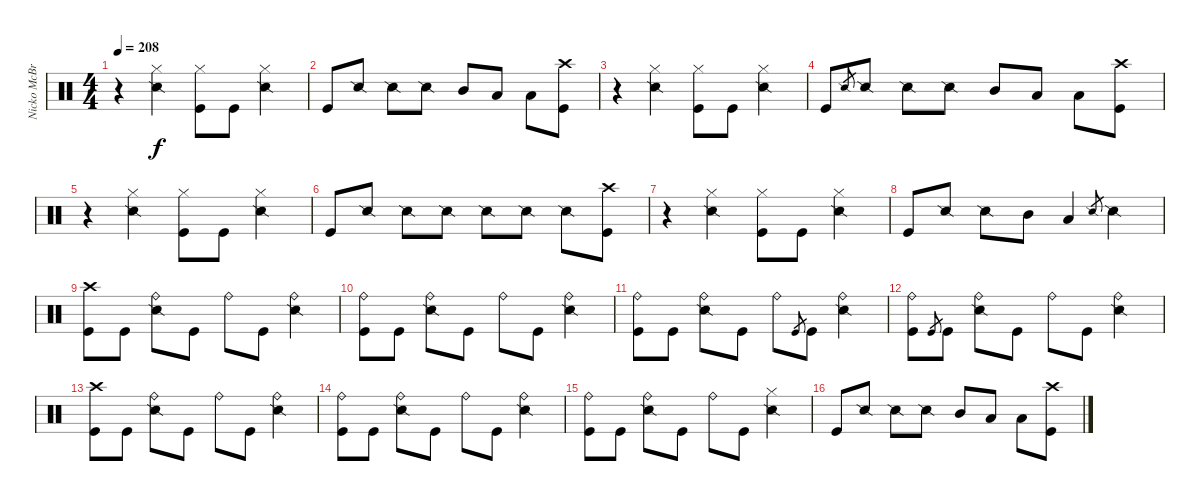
\track ("Nicko McBrain" "Nicko McBr") {instrument percussion}
\staff {score}
\articulation defaults
\ts (4 4)
\tempo 208
\clef neutral
\ks c
r.4{dy f} ("Hi-Hat (closed)" "Snare (side stick) 2").4 ("Hi-Hat (closed)" "Kick (hit)").8 "Kick (hit)".8 ("Hi-Hat (closed)" "Snare (side stick) 2").4 |
"Kick (hit)".8 "Snare (side stick) 2".8 "Snare (side stick) 2".8 "Snare (side stick) 2".8 "Mid Tom (hit)".8 "Low Tom (hit)".8 "Low Tom (hit)".8 ("Crash high (hit)" "Kick (hit)").8 |
r.4 ("Hi-Hat (closed)" "Snare (side stick) 2").4 ("Hi-Hat (closed)" "Kick (hit)").8 "Kick (hit)".8 ("Hi-Hat (closed)" "Snare (side stick) 2").4 |
"Kick (hit)".8 "Snare (side stick) 2".8{gr} "Snare (side stick) 2".8 "Snare (side stick) 2".8 "Snare (side stick) 2".8 "Mid Tom (hit)".8 "Low Tom (hit)".8 "Low Tom (hit)".8 ("Crash high (hit)" "Kick (hit)").8 |
r.4 ("Hi-Hat (closed)" "Snare (side stick) 2").4 ("Hi-Hat (closed)" "Kick (hit)").8 "Kick (hit)".8 ("Hi-Hat (closed)" "Snare (side stick) 2").4 |
"Kick (hit)".8 "Snare (side stick) 2".8 "Snare (side stick) 2".8 "Snare (side stick) 2".8 "Snare (side stick) 2".8 "Snare (side stick) 2".8 "Snare (side stick) 2".8 ("Crash high (hit)" "Kick (hit)").8 |
r.4 ("Hi-Hat (closed)" "Snare (side stick) 2").4 ("Hi-Hat (closed)" "Kick (hit)").8 "Kick (hit)".8 ("Hi-Hat (closed)" "Snare (side stick) 2").4 |
"Kick (hit)".8 "Snare (side stick) 2".8 "Snare (side stick) 2".8 "Mid Tom (hit)".8 "Low Tom (hit)".4 "Snare (side stick) 2".8{gr} "Snare (side stick) 2".4 |
("Crash high (hit)" "Kick (hit)").8 "Kick (hit)".8 ("Ride (bell)" "Snare (side stick) 2").8 "Kick (hit)".8 "Ride (bell)".8 "Kick (hit)".8 ("Ride (bell)" "Snare (side stick) 2").4 |
("Ride (bell)" "Kick (hit)").8 "Kick (hit)".8 ("Ride (bell)" "Snare (side stick) 2").8 "Kick (hit)".8 "Ride (bell)".8 "Kick (hit)".8 ("Ride (bell)" "Snare (side stick) 2").4 |
("Ride (bell)" "Kick (hit)").8 "Kick (hit)".8 ("Ride (bell)" "Snare (side stick) 2").8 "Kick (hit)".8 "Ride (bell)".8 "Kick (hit)".8{gr} "Kick (hit)".8 ("Ride (bell)" "Snare (side stick) 2").4 |
("Ride (bell)" "Kick (hit)").8 "Kick (hit)".8{gr} "Kick (hit)".8 ("Ride (bell)" "Snare (side stick) 2").8 "Kick (hit)".8 "Ride (bell)".8 "Kick (hit)".8 ("Ride (bell)" "Snare (side stick) 2").4 |
("Crash high (hit)" "Kick (hit)").8 "Kick (hit)".8 ("Ride (bell)" "Snare (side stick) 2").8 "Kick (hit)".8 "Ride (bell)".8 "Kick (hit)".8 ("Ride (bell)" "Snare (side stick) 2").4 |
("Ride (bell)" "Kick (hit)").8 "Kick (hit)".8 ("Ride (bell)" "Snare (side stick) 2").8 "Kick (hit)".8 "Ride (bell)".8 "Kick (hit)".8 ("Ride (bell)" "Snare (side stick) 2").4 |
("Ride (bell)" "Kick (hit)").8 "Kick (hit)".8 ("Ride (bell)" "Snare (side stick) 2").8 "Kick (hit)".8 "Ride (bell)".8 "Kick (hit)".8 ("Hi-Hat (closed)" "Snare (side stick) 2").4 |
"Kick (hit)".8 "Snare (side stick) 2".8 "Snare (side stick) 2".8 "Snare (side stick) 2".8 "Mid Tom (hit)".8 "Low Tom (hit)".8 "Low Tom (hit)".8 ("Crash high (hit)" "Kick (hit)").8
